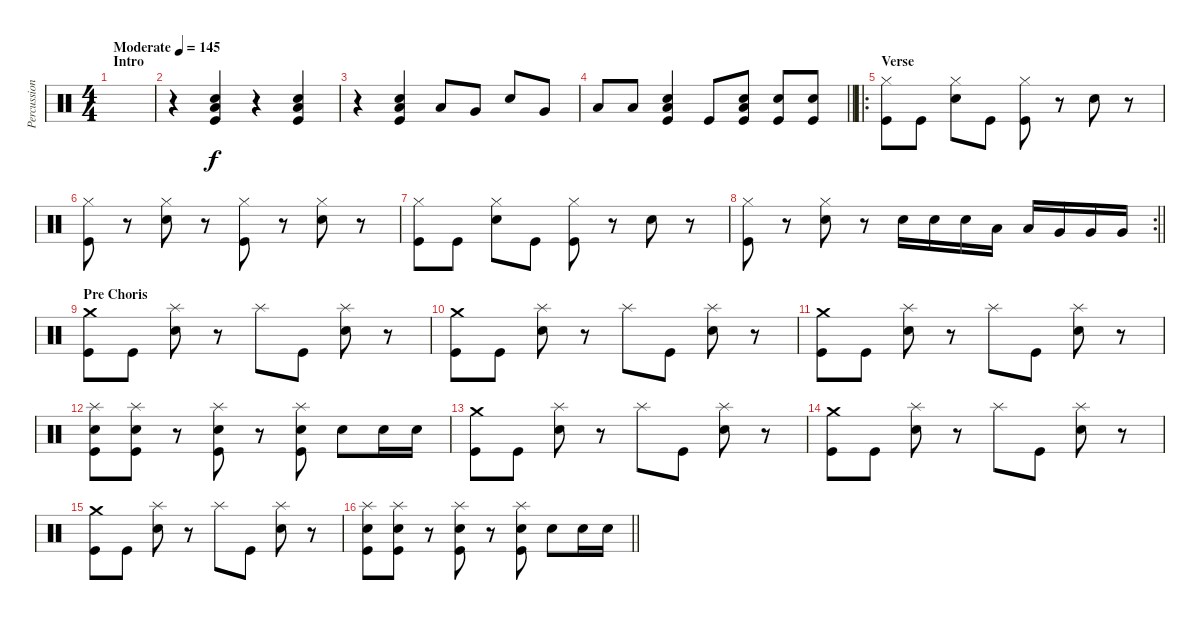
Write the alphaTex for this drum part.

\track ("Percussion" "Percussion") {instrument percussion}
\staff {score}
\articulation defaults
\ts (4 4)
\section ("" "Intro")
\tempo (145 "Moderate")
\clef neutral
\ks c
|
r.4 ("Snare (hit) 2" "Low Floor Tom (hit)" "Kick (hit)").4 r.4 ("Snare (hit) 2" "Low Floor Tom (hit)" "Kick (hit)").4 |
r.4 ("Snare (hit) 2" "Low Floor Tom (hit)" "Kick (hit)").4 "Low Tom (hit)".8 "Very Low Tom (hit)".8 "Snare (hit) 2".8 "Very Low Tom (hit)".8 |
\barLineRight lightlight "Low Floor Tom (hit)".8 "Low Tom (hit)".8
("Snare (hit) 2" "Low Floor Tom (hit)" "Kick (hit)").4 "Kick (hit)".8 ("Snare (hit) 2" "Low Floor Tom (hit)" "Kick (hit)").8 ("Snare (hit) 2" "Kick (hit)").8 ("Snare (hit) 2" "Kick (hit)").8 |
\ro
\section ("" "Verse")
("Hi-Hat (closed)" "Kick (hit)").8 "Kick (hit)".8 ("Hi-Hat (closed)" "Snare (hit) 2").8 "Kick (hit)".8 ("Hi-Hat (closed)" "Kick (hit)").8 r.8 "Snare (hit) 2".8 r.8 |
("Hi-Hat (closed)" "Kick (hit)").8 r.8 ("Hi-Hat (closed)" "Snare (hit) 2").8 r.8 ("Hi-Hat (closed)" "Kick (hit)").8 r.8 ("Hi-Hat (closed)" "Snare (hit) 2").8 r.8 |
("Hi-Hat (closed)" "Kick (hit)").8 "Kick (hit)".8 ("Hi-Hat (closed)" "Snare (hit) 2").8 "Kick (hit)".8 ("Hi-Hat (closed)" "Kick (hit)").8 r.8 "Snare (hit) 2".8 r.8 |
\rc 2
\barLineRight lightlight
("Hi-Hat (closed)" "Kick (hit)").8 r.8 ("Hi-Hat (closed)" "Snare (hit) 2").8 r.8 "Snare (hit) 2".16 "Snare (hit) 2".16 "Snare (hit) 2".16 "Low Tom (hit)".16 "Low Tom (hit)".16 "Very Low Tom (hit)".16 "Very Low Tom (hit)".16 "Very Low Tom (hit)".16 |
\section ("" "Pre Choris")
("Crash medium (hit)" "Kick (hit)").8 "Kick (hit)".8 ("Splash (hit)" "Snare (hit) 2").8 r.8 "Splash (hit)".8 "Kick (hit)".8 ("Splash (hit)" "Snare (hit) 2").8 r.8 |
("Crash medium (hit)" "Kick (hit)").8 "Kick (hit)".8 ("Splash (hit)" "Snare (hit) 2").8 r.8 "Splash (hit)".8 "Kick (hit)".8 ("Splash (hit)" "Snare (hit) 2").8 r.8 |
("Crash medium (hit)" "Kick (hit)").8 "Kick (hit)".8 ("Splash (hit)" "Snare (hit) 2").8 r.8 "Splash (hit)".8 "Kick (hit)".8 ("Splash (hit)" "Snare (hit) 2").8 r.8 |
("Splash (hit)" "Snare (hit) 2" "Kick (hit)").8 ("Splash (hit)" "Snare (hit) 2" "Kick (hit)").8 r.8 ("Splash (hit)" "Snare (hit) 2" "Kick (hit)").8 r.8 ("Splash (hit)" "Snare (hit) 2" "Kick (hit)").8 "Snare (hit) 2".8 "Snare (hit) 2".16 "Snare (hit) 2".16 |
("Crash medium (hit)" "Kick (hit)").8 "Kick (hit)".8 ("Splash (hit)" "Snare (hit) 2").8 r.8 "Splash (hit)".8 "Kick (hit)".8 ("Splash (hit)" "Snare (hit) 2").8 r.8 |
("Crash medium (hit)" "Kick (hit)").8 "Kick (hit)".8 ("Splash (hit)" "Snare (hit) 2").8 r.8 "Splash (hit)".8 "Kick (hit)".8 ("Splash (hit)" "Snare (hit) 2").8 r.8 |
("Crash medium (hit)" "Kick (hit)").8 "Kick (hit)".8 ("Splash (hit)" "Snare (hit) 2").8 r.8 "Splash (hit)".8 "Kick (hit)".8 ("Splash (hit)" "Snare (hit) 2").8 r.8 |
\barLineRight lightlight
("Splash (hit)" "Snare (hit) 2" "Kick (hit)").8 ("Splash (hit)" "Snare (hit) 2" "Kick (hit)").8 r.8 ("Splash (hit)" "Snare (hit) 2" "Kick (hit)").8 r.8 ("Splash (hit)" "Snare (hit) 2" "Kick (hit)").8 "Snare (hit) 2".8 "Snare (hit) 2".16 "Snare (hit) 2".16
